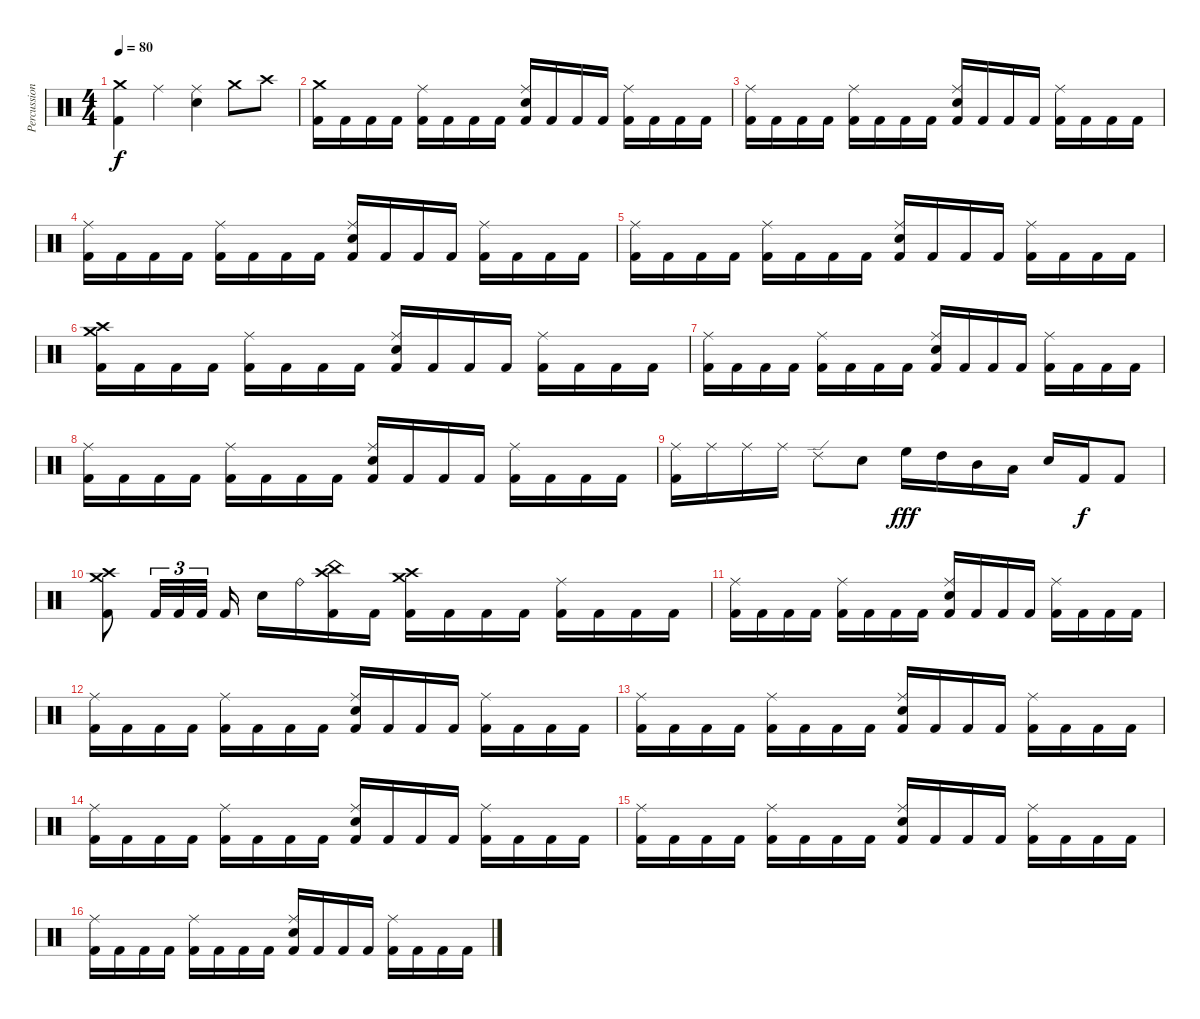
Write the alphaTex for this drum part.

\track ("Percussion" "Percussion") {instrument percussion}
\staff {score}
\articulation defaults
\ts (4 4)
\tempo 80
\clef neutral
\ks c
("Crash medium (hit)" "Kick (hit) 2").4{dy f} "Ride (middle)".4 ("Ride (middle)" "Snare (hit) 2").4 "Crash medium (hit)".8 "Crash high (hit)".8 |
("Crash medium (hit)" "Kick (hit) 2").16 "Kick (hit) 2".16 "Kick (hit) 2".16 "Kick (hit) 2".16 ("Ride (middle)" "Kick (hit) 2").16 "Kick (hit) 2".16 "Kick (hit) 2".16 "Kick (hit) 2".16 ("Ride (middle)" "Snare (hit) 2" "Kick (hit) 2").16 "Kick (hit) 2".16 "Kick (hit) 2".16 "Kick (hit) 2".16 ("Ride (middle)" "Kick (hit) 2").16 "Kick (hit) 2".16 "Kick (hit) 2".16 "Kick (hit) 2".16 |
("Ride (middle)" "Kick (hit) 2").16 "Kick (hit) 2".16 "Kick (hit) 2".16 "Kick (hit) 2".16 ("Ride (middle)" "Kick (hit) 2").16 "Kick (hit) 2".16 "Kick (hit) 2".16 "Kick (hit) 2".16 ("Ride (middle)" "Snare (hit) 2" "Kick (hit) 2").16 "Kick (hit) 2".16 "Kick (hit) 2".16 "Kick (hit) 2".16 ("Ride (middle)" "Kick (hit) 2").16 "Kick (hit) 2".16 "Kick (hit) 2".16 "Kick (hit) 2".16 |
("Ride (middle)" "Kick (hit) 2").16 "Kick (hit) 2".16 "Kick (hit) 2".16 "Kick (hit) 2".16 ("Ride (middle)" "Kick (hit) 2").16 "Kick (hit) 2".16 "Kick (hit) 2".16 "Kick (hit) 2".16 ("Ride (middle)" "Snare (hit) 2" "Kick (hit) 2").16 "Kick (hit) 2".16 "Kick (hit) 2".16 "Kick (hit) 2".16 ("Ride (middle)" "Kick (hit) 2").16 "Kick (hit) 2".16 "Kick (hit) 2".16 "Kick (hit) 2".16 |
("Ride (middle)" "Kick (hit) 2").16 "Kick (hit) 2".16 "Kick (hit) 2".16 "Kick (hit) 2".16 ("Ride (middle)" "Kick (hit) 2").16 "Kick (hit) 2".16 "Kick (hit) 2".16 "Kick (hit) 2".16 ("Ride (middle)" "Snare (hit) 2" "Kick (hit) 2").16 "Kick (hit) 2".16 "Kick (hit) 2".16 "Kick (hit) 2".16 ("Ride (middle)" "Kick (hit) 2").16 "Kick (hit) 2".16 "Kick (hit) 2".16 "Kick (hit) 2".16 |
("Crash medium (hit)" "Crash high (hit)" "Kick (hit) 2").16 "Kick (hit) 2".16 "Kick (hit) 2".16 "Kick (hit) 2".16 ("Ride (middle)" "Kick (hit) 2").16 "Kick (hit) 2".16 "Kick (hit) 2".16 "Kick (hit) 2".16 ("Ride (middle)" "Snare (hit) 2" "Kick (hit) 2").16 "Kick (hit) 2".16 "Kick (hit) 2".16 "Kick (hit) 2".16 ("Ride (middle)" "Kick (hit) 2").16 "Kick (hit) 2".16 "Kick (hit) 2".16 "Kick (hit) 2".16 |
("Ride (middle)" "Kick (hit) 2").16 "Kick (hit) 2".16 "Kick (hit) 2".16 "Kick (hit) 2".16 ("Ride (middle)" "Kick (hit) 2").16 "Kick (hit) 2".16 "Kick (hit) 2".16 "Kick (hit) 2".16 ("Ride (middle)" "Snare (hit) 2" "Kick (hit) 2").16 "Kick (hit) 2".16 "Kick (hit) 2".16 "Kick (hit) 2".16 ("Ride (middle)" "Kick (hit) 2").16 "Kick (hit) 2".16 "Kick (hit) 2".16 "Kick (hit) 2".16 |
("Ride (middle)" "Kick (hit) 2").16 "Kick (hit) 2".16 "Kick (hit) 2".16 "Kick (hit) 2".16 ("Ride (middle)" "Kick (hit) 2").16 "Kick (hit) 2".16 "Kick (hit) 2".16 "Kick (hit) 2".16 ("Ride (middle)" "Snare (hit) 2" "Kick (hit) 2").16 "Kick (hit) 2".16 "Kick (hit) 2".16 "Kick (hit) 2".16 ("Ride (middle)" "Kick (hit) 2").16 "Kick (hit) 2".16 "Kick (hit) 2".16 "Kick (hit) 2".16 |
("Ride (middle)" "Kick (hit) 2").16 "Ride (middle)".16 "Ride (middle)".16 "Ride (middle)".16 "Ride (edge) 2".8 "Snare (hit) 2".8 "High Floor Tom (hit)".16{dy fff} "High Tom (hit)".16 "Mid Tom (hit)".16 "Low Tom (hit)".16 "Snare (hit) 2".16 "Kick (hit) 2".16{dy f} "Kick (hit) 2".8 |
("Crash medium (hit)" "Crash high (hit)" "Kick (hit) 2").8 "Kick (hit) 2".32{tu (3 2)} "Kick (hit) 2".32{tu (3 2)} "Kick (hit) 2".32{tu (3 2)} "Kick (hit) 2".16 "Electric Snare (hit)".16 "Ride (bell)".16 ("China (hit)" "Crash high (hit)" "Kick (hit) 2").16 "Kick (hit) 2".16 ("Crash medium (hit)" "Crash high (hit)" "Kick (hit) 2").16 "Kick (hit) 2".16 "Kick (hit) 2".16 "Kick (hit) 2".16 ("Ride (middle)" "Kick (hit) 2").16 "Kick (hit) 2".16 "Kick (hit) 2".16 "Kick (hit) 2".16 |
("Ride (middle)" "Kick (hit) 2").16 "Kick (hit) 2".16 "Kick (hit) 2".16 "Kick (hit) 2".16 ("Ride (middle)" "Kick (hit) 2").16 "Kick (hit) 2".16 "Kick (hit) 2".16 "Kick (hit) 2".16 ("Ride (middle)" "Snare (hit) 2" "Kick (hit) 2").16 "Kick (hit) 2".16 "Kick (hit) 2".16 "Kick (hit) 2".16 ("Ride (middle)" "Kick (hit) 2").16 "Kick (hit) 2".16 "Kick (hit) 2".16 "Kick (hit) 2".16 |
("Ride (middle)" "Kick (hit) 2").16 "Kick (hit) 2".16 "Kick (hit) 2".16 "Kick (hit) 2".16 ("Ride (middle)" "Kick (hit) 2").16 "Kick (hit) 2".16 "Kick (hit) 2".16 "Kick (hit) 2".16 ("Ride (middle)" "Snare (hit) 2" "Kick (hit) 2").16 "Kick (hit) 2".16 "Kick (hit) 2".16 "Kick (hit) 2".16 ("Ride (middle)" "Kick (hit) 2").16 "Kick (hit) 2".16 "Kick (hit) 2".16 "Kick (hit) 2".16 |
("Ride (middle)" "Kick (hit) 2").16 "Kick (hit) 2".16 "Kick (hit) 2".16 "Kick (hit) 2".16 ("Ride (middle)" "Kick (hit) 2").16 "Kick (hit) 2".16 "Kick (hit) 2".16 "Kick (hit) 2".16 ("Ride (middle)" "Snare (hit) 2" "Kick (hit) 2").16 "Kick (hit) 2".16 "Kick (hit) 2".16 "Kick (hit) 2".16 ("Ride (middle)" "Kick (hit) 2").16 "Kick (hit) 2".16 "Kick (hit) 2".16 "Kick (hit) 2".16 |
("Ride (middle)" "Kick (hit) 2").16 "Kick (hit) 2".16 "Kick (hit) 2".16 "Kick (hit) 2".16 ("Ride (middle)" "Kick (hit) 2").16 "Kick (hit) 2".16 "Kick (hit) 2".16 "Kick (hit) 2".16 ("Ride (middle)" "Snare (hit) 2" "Kick (hit) 2").16 "Kick (hit) 2".16 "Kick (hit) 2".16 "Kick (hit) 2".16 ("Ride (middle)" "Kick (hit) 2").16 "Kick (hit) 2".16 "Kick (hit) 2".16 "Kick (hit) 2".16 |
("Ride (middle)" "Kick (hit) 2").16 "Kick (hit) 2".16 "Kick (hit) 2".16 "Kick (hit) 2".16 ("Ride (middle)" "Kick (hit) 2").16 "Kick (hit) 2".16 "Kick (hit) 2".16 "Kick (hit) 2".16 ("Ride (middle)" "Snare (hit) 2" "Kick (hit) 2").16 "Kick (hit) 2".16 "Kick (hit) 2".16 "Kick (hit) 2".16 ("Ride (middle)" "Kick (hit) 2").16 "Kick (hit) 2".16 "Kick (hit) 2".16 "Kick (hit) 2".16 |
("Ride (middle)" "Kick (hit) 2").16 "Kick (hit) 2".16 "Kick (hit) 2".16 "Kick (hit) 2".16 ("Ride (middle)" "Kick (hit) 2").16 "Kick (hit) 2".16 "Kick (hit) 2".16 "Kick (hit) 2".16 ("Ride (middle)" "Snare (hit) 2" "Kick (hit) 2").16 "Kick (hit) 2".16 "Kick (hit) 2".16 "Kick (hit) 2".16 ("Ride (middle)" "Kick (hit) 2").16 "Kick (hit) 2".16 "Kick (hit) 2".16 "Kick (hit) 2".16
